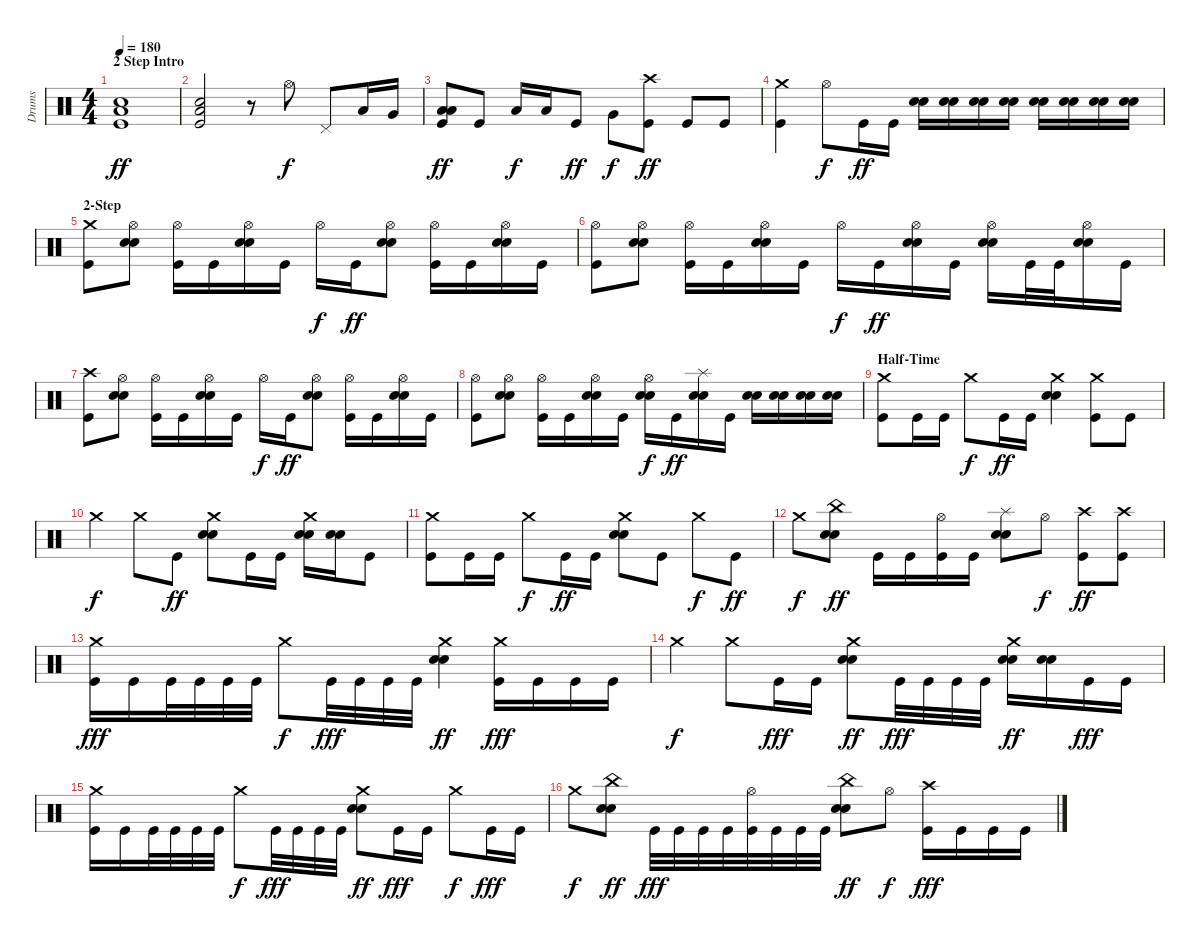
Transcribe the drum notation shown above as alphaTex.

\track ("Drums" "Drums") {instrument percussion}
\staff {score}
\articulation defaults
\ts (4 4)
\section ("" "2 Step Intro")
\tempo 180
\tempo 150
\tempo 180
\clef neutral
\ks c
("Kick (hit)" "Electric Snare (hit)" "Low Floor Tom (hit)").1{dy ff} |
("Kick (hit)" "Electric Snare (hit)" "Low Floor Tom (hit)").2 r.8 "Hi-Hat (open)".8{dy f} "Pedal Hi-Hat (hit)".8 "Low Tom (hit)".16 "Very Low Tom (hit)".16 |
("Kick (hit)" "Low Floor Tom (hit)" "Low Floor Tom (hit)").8{dy ff} "Kick (hit)".8 "Low Tom (hit)".16{dy f} "Low Tom (hit)".16 "Kick (hit)".8{dy ff} "Very Low Tom (hit)".8{dy f} ("Kick (hit)" "Crash high (hit)").8{dy ff} "Kick (hit)".8 "Kick (hit)".8 |
("Kick (hit)" "Crash medium (hit)").4 "Hi-Hat (open)".8{dy f} "Kick (hit)".16{dy ff} "Kick (hit)".16 ("Electric Snare (hit)" "Electric Snare (hit)").16 ("Electric Snare (hit)" "Electric Snare (hit)").16 ("Electric Snare (hit)" "Electric Snare (hit)").16 ("Electric Snare (hit)" "Electric Snare (hit)").16 ("Electric Snare (hit)" "Electric Snare (hit)").16 ("Electric Snare (hit)" "Electric Snare (hit)").16 ("Electric Snare (hit)" "Electric Snare (hit)").16 ("Electric Snare (hit)" "Electric Snare (hit)").16 |
\section ("" "2-Step")
("Kick (hit)" "Crash medium (hit)").8 ("Electric Snare (hit)" "Electric Snare (hit)" "Hi-Hat (open)").8 ("Kick (hit)" "Hi-Hat (open)").16 "Kick (hit)".16 ("Electric Snare (hit)" "Electric Snare (hit)" "Hi-Hat (open)").16 "Kick (hit)".16 "Hi-Hat (open)".16{dy f} "Kick (hit)".16{dy ff} ("Electric Snare (hit)" "Electric Snare (hit)" "Hi-Hat (open)").8 ("Kick (hit)" "Hi-Hat (open)").16 "Kick (hit)".16 ("Electric Snare (hit)" "Electric Snare (hit)" "Hi-Hat (open)").16 "Kick (hit)".16 |
("Kick (hit)" "Hi-Hat (open)").8 ("Electric Snare (hit)" "Electric Snare (hit)" "Hi-Hat (open)").8 ("Kick (hit)" "Hi-Hat (open)").16 "Kick (hit)".16 ("Electric Snare (hit)" "Electric Snare (hit)" "Hi-Hat (open)").16 "Kick (hit)".16 "Hi-Hat (open)".16{dy f} "Kick (hit)".16{dy ff} ("Electric Snare (hit)" "Electric Snare (hit)" "Hi-Hat (open)").16 "Kick (hit)".16 ("Electric Snare (hit)" "Electric Snare (hit)" "Hi-Hat (open)").16 "Kick (hit)".32 "Kick (hit)".32 ("Electric Snare (hit)" "Electric Snare (hit)" "Hi-Hat (open)").16 "Kick (hit)".16 |
("Kick (hit)" "Crash high (hit)").8 ("Electric Snare (hit)" "Electric Snare (hit)" "Hi-Hat (open)").8 ("Kick (hit)" "Hi-Hat (open)").16 "Kick (hit)".16 ("Electric Snare (hit)" "Electric Snare (hit)" "Hi-Hat (open)").16 "Kick (hit)".16 "Hi-Hat (open)".16{dy f} "Kick (hit)".16{dy ff} ("Electric Snare (hit)" "Electric Snare (hit)" "Hi-Hat (open)").8 ("Kick (hit)" "Hi-Hat (open)").16 "Kick (hit)".16 ("Electric Snare (hit)" "Electric Snare (hit)" "Hi-Hat (open)").16 "Kick (hit)".16 |
("Kick (hit)" "Hi-Hat (open)").8 ("Electric Snare (hit)" "Electric Snare (hit)" "Hi-Hat (open)").8 ("Kick (hit)" "Hi-Hat (open)").16 "Kick (hit)".16 ("Electric Snare (hit)" "Electric Snare (hit)" "Hi-Hat (open)").16 "Kick (hit)".16 ("Electric Snare (hit)" "Electric Snare (hit)" "Hi-Hat (open)").16{dy f} "Kick (hit)".16{dy ff} ("Electric Snare (hit)" "Electric Snare (hit)" "Splash (hit)").16 "Kick (hit)".16 ("Electric Snare (hit)" "Electric Snare (hit)").16 ("Electric Snare (hit)" "Electric Snare (hit)").16 ("Electric Snare (hit)" "Electric Snare (hit)").16 ("Electric Snare (hit)" "Electric Snare (hit)").16 |
\section ("" "Half-Time")
("Kick (hit)" "Crash medium (hit)").8 "Kick (hit)".16 "Kick (hit)".16 "Crash medium (hit)".8{dy f} "Kick (hit)".16{dy ff} "Kick (hit)".16 ("Electric Snare (hit)" "Electric Snare (hit)" "Crash medium (hit)").4 ("Kick (hit)" "Crash medium (hit)").8 "Kick (hit)".8 |
"Crash medium (hit)".4{dy f} "Crash medium (hit)".8 "Kick (hit)".8{dy ff} ("Electric Snare (hit)" "Electric Snare (hit)" "Crash medium (hit)").8 "Kick (hit)".16 "Kick (hit)".16 ("Electric Snare (hit)" "Electric Snare (hit)" "Crash medium (hit)").16 ("Electric Snare (hit)" "Electric Snare (hit)").16 "Kick (hit)".8 |
("Kick (hit)" "Crash medium (hit)").8 "Kick (hit)".16 "Kick (hit)".16 "Crash medium (hit)".8{dy f} "Kick (hit)".16{dy ff} "Kick (hit)".16 ("Electric Snare (hit)" "Electric Snare (hit)" "Crash medium (hit)").8 "Kick (hit)".8 "Crash medium (hit)".8{dy f} "Kick (hit)".8{dy ff} |
"Crash medium (hit)".8{dy f} ("Electric Snare (hit)" "Electric Snare (hit)" "China (hit)").8{dy ff} "Kick (hit)".16 "Kick (hit)".16 ("Kick (hit)" "Hi-Hat (open)").16 "Kick (hit)".16 ("Electric Snare (hit)" "Electric Snare (hit)" "Splash (hit)").8 "Hi-Hat (open)".8{dy f} ("Kick (hit)" "Crash high (hit)").8{dy ff} ("Kick (hit)" "Crash high (hit)").8 |
("Kick (hit)" "Crash medium (hit)").16{dy fff} "Kick (hit)".16 "Kick (hit)".32 "Kick (hit)".32 "Kick (hit)".32 "Kick (hit)".32 "Crash medium (hit)".8{dy f} "Kick (hit)".32{dy fff} "Kick (hit)".32 "Kick (hit)".32 "Kick (hit)".32 ("Electric Snare (hit)" "Electric Snare (hit)" "Crash medium (hit)").4{dy ff} ("Kick (hit)" "Crash medium (hit)").16{dy fff} "Kick (hit)".16 "Kick (hit)".16 "Kick (hit)".16 |
"Crash medium (hit)".4{dy f} "Crash medium (hit)".8 "Kick (hit)".16{dy fff} "Kick (hit)".16 ("Electric Snare (hit)" "Electric Snare (hit)" "Crash medium (hit)").8{dy ff} "Kick (hit)".32{dy fff} "Kick (hit)".32 "Kick (hit)".32 "Kick (hit)".32 ("Electric Snare (hit)" "Electric Snare (hit)" "Crash medium (hit)").16{dy ff} ("Electric Snare (hit)" "Electric Snare (hit)").16 "Kick (hit)".16{dy fff} "Kick (hit)".16 |
("Kick (hit)" "Crash medium (hit)").16 "Kick (hit)".16 "Kick (hit)".32 "Kick (hit)".32 "Kick (hit)".32 "Kick (hit)".32 "Crash medium (hit)".8{dy f} "Kick (hit)".32{dy fff} "Kick (hit)".32 "Kick (hit)".32 "Kick (hit)".32 ("Electric Snare (hit)" "Electric Snare (hit)" "Crash medium (hit)").8{dy ff} "Kick (hit)".16{dy fff} "Kick (hit)".16 "Crash medium (hit)".8{dy f} "Kick (hit)".16{dy fff} "Kick (hit)".16 |
"Crash medium (hit)".8{dy f} ("Electric Snare (hit)" "Electric Snare (hit)" "China (hit)").8{dy ff} "Kick (hit)".32{dy fff} "Kick (hit)".32 "Kick (hit)".32 "Kick (hit)".32 ("Kick (hit)" "Hi-Hat (open)").32 "Kick (hit)".32 "Kick (hit)".32 "Kick (hit)".32 ("Electric Snare (hit)" "Electric Snare (hit)" "China (hit)").8{dy ff} "Hi-Hat (open)".8{dy f} ("Kick (hit)" "Crash high (hit)").16{dy fff} "Kick (hit)".16 "Kick (hit)".16 "Kick (hit)".16
